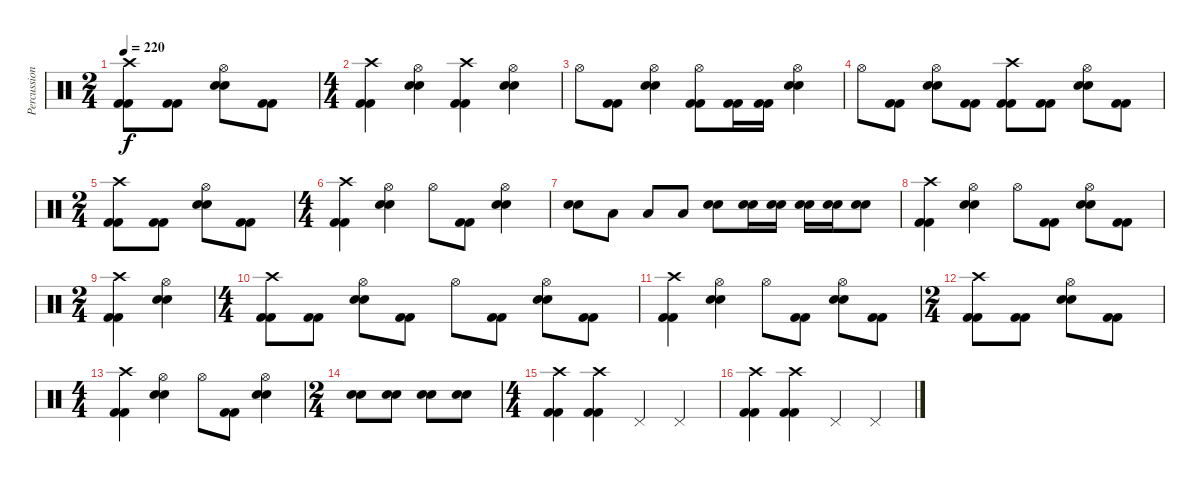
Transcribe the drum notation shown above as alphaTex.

\track ("Percussion" "Percussion") {instrument percussion}
\staff {score}
\articulation defaults
\ts (2 4)
\tempo 220
\clef neutral
\ks c
("Crash high (hit)" "Kick (hit) 2" "Kick (hit) 2").8{dy f} ("Kick (hit) 2" "Kick (hit) 2").8 ("Hi-Hat (open)" "Electric Snare (hit)" "Electric Snare (hit)").8 ("Kick (hit) 2" "Kick (hit) 2").8 |
\ts (4 4)
("Crash high (hit)" "Kick (hit) 2" "Kick (hit) 2").4 ("Hi-Hat (open)" "Electric Snare (hit)" "Electric Snare (hit)").4 ("Crash high (hit)" "Kick (hit) 2" "Kick (hit) 2").4 ("Hi-Hat (open)" "Electric Snare (hit)" "Electric Snare (hit)").4 |
"Hi-Hat (open)".8 ("Kick (hit) 2" "Kick (hit) 2").8 ("Hi-Hat (open)" "Electric Snare (hit)" "Electric Snare (hit)").4 ("Hi-Hat (open)" "Kick (hit) 2" "Kick (hit) 2").8 ("Kick (hit) 2" "Kick (hit) 2").16 ("Kick (hit) 2" "Kick (hit) 2").16 ("Hi-Hat (open)" "Electric Snare (hit)" "Electric Snare (hit)").4 |
"Hi-Hat (open)".8 ("Kick (hit) 2" "Kick (hit) 2").8 ("Hi-Hat (open)" "Electric Snare (hit)" "Electric Snare (hit)").8 ("Kick (hit) 2" "Kick (hit) 2").8 ("Crash high (hit)" "Kick (hit) 2" "Kick (hit) 2").8 ("Kick (hit) 2" "Kick (hit) 2").8 ("Hi-Hat (open)" "Electric Snare (hit)" "Electric Snare (hit)").8 ("Kick (hit) 2" "Kick (hit) 2").8 |
\ts (2 4)
("Crash high (hit)" "Kick (hit) 2" "Kick (hit) 2").8 ("Kick (hit) 2" "Kick (hit) 2").8 ("Hi-Hat (open)" "Electric Snare (hit)" "Electric Snare (hit)").8 ("Kick (hit) 2" "Kick (hit) 2").8 |
\ts (4 4)
("Crash high (hit)" "Kick (hit) 2" "Kick (hit) 2").4 ("Hi-Hat (open)" "Electric Snare (hit)" "Electric Snare (hit)").4 "Hi-Hat (open)".8 ("Kick (hit) 2" "Kick (hit) 2").8 ("Hi-Hat (open)" "Electric Snare (hit)" "Electric Snare (hit)").4 |
("Electric Snare (hit)" "Electric Snare (hit)").8 "Low Tom (hit)".8 "Low Tom (hit)".8 "Low Tom (hit)".8 ("Electric Snare (hit)" "Electric Snare (hit)").8 ("Electric Snare (hit)" "Electric Snare (hit)").16 ("Electric Snare (hit)" "Electric Snare (hit)").16 ("Electric Snare (hit)" "Electric Snare (hit)").16 ("Electric Snare (hit)" "Electric Snare (hit)").16 ("Electric Snare (hit)" "Electric Snare (hit)").8 |
("Crash high (hit)" "Kick (hit) 2" "Kick (hit) 2").4 ("Hi-Hat (open)" "Electric Snare (hit)" "Electric Snare (hit)").4 "Hi-Hat (open)".8 ("Kick (hit) 2" "Kick (hit) 2").8 ("Hi-Hat (open)" "Electric Snare (hit)" "Electric Snare (hit)").8 ("Kick (hit) 2" "Kick (hit) 2").8 |
\ts (2 4)
("Crash high (hit)" "Kick (hit) 2" "Kick (hit) 2").4 ("Hi-Hat (open)" "Electric Snare (hit)" "Electric Snare (hit)").4 |
\ts (4 4)
("Crash high (hit)" "Kick (hit) 2" "Kick (hit) 2").8 ("Kick (hit) 2" "Kick (hit) 2").8 ("Hi-Hat (open)" "Electric Snare (hit)" "Electric Snare (hit)").8 ("Kick (hit) 2" "Kick (hit) 2").8 "Hi-Hat (open)".8 ("Kick (hit) 2" "Kick (hit) 2").8 ("Hi-Hat (open)" "Electric Snare (hit)" "Electric Snare (hit)").8 ("Kick (hit) 2" "Kick (hit) 2").8 |
("Crash high (hit)" "Kick (hit) 2" "Kick (hit) 2").4 ("Hi-Hat (open)" "Electric Snare (hit)" "Electric Snare (hit)").4 "Hi-Hat (open)".8 ("Kick (hit) 2" "Kick (hit) 2").8 ("Hi-Hat (open)" "Electric Snare (hit)" "Electric Snare (hit)").8 ("Kick (hit) 2" "Kick (hit) 2").8 |
\ts (2 4)
("Crash high (hit)" "Kick (hit) 2" "Kick (hit) 2").8 ("Kick (hit) 2" "Kick (hit) 2").8 ("Hi-Hat (open)" "Electric Snare (hit)" "Electric Snare (hit)").8 ("Kick (hit) 2" "Kick (hit) 2").8 |
\ts (4 4)
("Crash high (hit)" "Kick (hit) 2" "Kick (hit) 2").4 ("Hi-Hat (open)" "Electric Snare (hit)" "Electric Snare (hit)").4 "Hi-Hat (open)".8 ("Kick (hit) 2" "Kick (hit) 2").8 ("Hi-Hat (open)" "Electric Snare (hit)" "Electric Snare (hit)").4 |
\ts (2 4)
("Electric Snare (hit)" "Electric Snare (hit)").8 ("Electric Snare (hit)" "Electric Snare (hit)").8 ("Electric Snare (hit)" "Electric Snare (hit)").8 ("Electric Snare (hit)" "Electric Snare (hit)").8 |
\ts (4 4)
("Crash high (hit)" "Kick (hit) 2" "Kick (hit) 2").4 ("Crash high (hit)" "Kick (hit) 2" "Kick (hit) 2").4 "Pedal Hi-Hat (hit)".4 "Pedal Hi-Hat (hit)".4 |
("Crash high (hit)" "Kick (hit) 2" "Kick (hit) 2").4 ("Crash high (hit)" "Kick (hit) 2" "Kick (hit) 2").4 "Pedal Hi-Hat (hit)".4 "Pedal Hi-Hat (hit)".4
